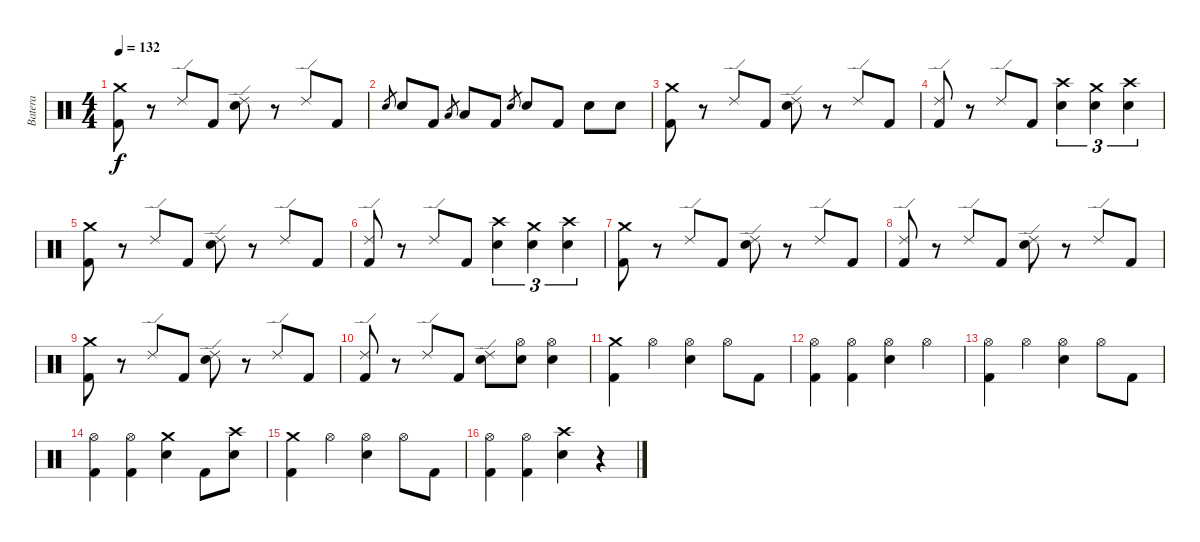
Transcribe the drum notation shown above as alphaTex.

\track ("Batera" "Batera") {instrument percussion}
\staff {score}
\articulation defaults
\ts (4 4)
\tempo 132
\clef neutral
\ks c
("Crash medium (hit)" "Kick (hit) 2").8{dy f} r.8 "Ride (edge) 2".8 "Kick (hit) 2".8 ("Ride (edge) 2" "Electric Snare (hit)").8 r.8 "Ride (edge) 2".8 "Kick (hit) 2".8 |
"Electric Snare (hit)".8{gr} "Electric Snare (hit)".8 "Kick (hit) 2".8 "Low Tom (hit)".8{gr} "Low Tom (hit)".8 "Kick (hit) 2".8 "Electric Snare (hit)".8{gr} "Electric Snare (hit)".8 "Kick (hit) 2".8 "Electric Snare (hit)".8 "Electric Snare (hit)".8 |
("Crash medium (hit)" "Kick (hit) 2").8 r.8 "Ride (edge) 2".8 "Kick (hit) 2".8 ("Ride (edge) 2" "Electric Snare (hit)").8 r.8 "Ride (edge) 2".8 "Kick (hit) 2".8 |
("Ride (edge) 2" "Kick (hit) 2").8 r.8 "Ride (edge) 2".8 "Kick (hit) 2".8 ("Crash high (hit)" "Electric Snare (hit)").4{tu (3 2)} ("Crash medium (hit)" "Electric Snare (hit)").4{tu (3 2)} ("Crash high (hit)" "Electric Snare (hit)").4{tu (3 2)} |
("Crash medium (hit)" "Kick (hit) 2").8 r.8 "Ride (edge) 2".8 "Kick (hit) 2".8 ("Ride (edge) 2" "Electric Snare (hit)").8 r.8 "Ride (edge) 2".8 "Kick (hit) 2".8 |
("Ride (edge) 2" "Kick (hit) 2").8 r.8 "Ride (edge) 2".8 "Kick (hit) 2".8 ("Crash high (hit)" "Electric Snare (hit)").4{tu (3 2)} ("Crash medium (hit)" "Electric Snare (hit)").4{tu (3 2)} ("Crash high (hit)" "Electric Snare (hit)").4{tu (3 2)} |
("Crash medium (hit)" "Kick (hit) 2").8 r.8 "Ride (edge) 2".8 "Kick (hit) 2".8 ("Ride (edge) 2" "Electric Snare (hit)").8 r.8 "Ride (edge) 2".8 "Kick (hit) 2".8 |
("Ride (edge) 2" "Kick (hit) 2").8 r.8 "Ride (edge) 2".8 "Kick (hit) 2".8 ("Ride (edge) 2" "Electric Snare (hit)").8 r.8 "Ride (edge) 2".8 "Kick (hit) 2".8 |
("Crash medium (hit)" "Kick (hit) 2").8 r.8 "Ride (edge) 2".8 "Kick (hit) 2".8 ("Ride (edge) 2" "Electric Snare (hit)").8 r.8 "Ride (edge) 2".8 "Kick (hit) 2".8 |
("Ride (edge) 2" "Kick (hit) 2").8 r.8 "Ride (edge) 2".8 "Kick (hit) 2".8 ("Ride (edge) 2" "Electric Snare (hit)").8 ("Hi-Hat (open)" "Electric Snare (hit)").8 ("Hi-Hat (open)" "Electric Snare (hit)").4 |
("Crash medium (hit)" "Kick (hit) 2").4 "Hi-Hat (open)".4 ("Hi-Hat (open)" "Electric Snare (hit)").4 "Hi-Hat (open)".8 "Kick (hit) 2".8 |
("Hi-Hat (open)" "Kick (hit) 2").4 ("Hi-Hat (open)" "Kick (hit) 2").4 ("Hi-Hat (open)" "Electric Snare (hit)").4 "Hi-Hat (open)".4 |
("Hi-Hat (open)" "Kick (hit) 2").4 "Hi-Hat (open)".4 ("Hi-Hat (open)" "Electric Snare (hit)").4 "Hi-Hat (open)".8 "Kick (hit) 2".8 |
("Hi-Hat (open)" "Kick (hit) 2").4 ("Hi-Hat (open)" "Kick (hit) 2").4 ("Electric Snare (hit)" "Crash medium (hit)").4 "Kick (hit) 2".8 ("Crash high (hit)" "Electric Snare (hit)").8 |
("Crash medium (hit)" "Kick (hit) 2").4 "Hi-Hat (open)".4 ("Hi-Hat (open)" "Electric Snare (hit)").4 "Hi-Hat (open)".8 "Kick (hit) 2".8 |
("Hi-Hat (open)" "Kick (hit) 2").4 ("Hi-Hat (open)" "Kick (hit) 2").4 ("Crash high (hit)" "Electric Snare (hit)").4 r.4
